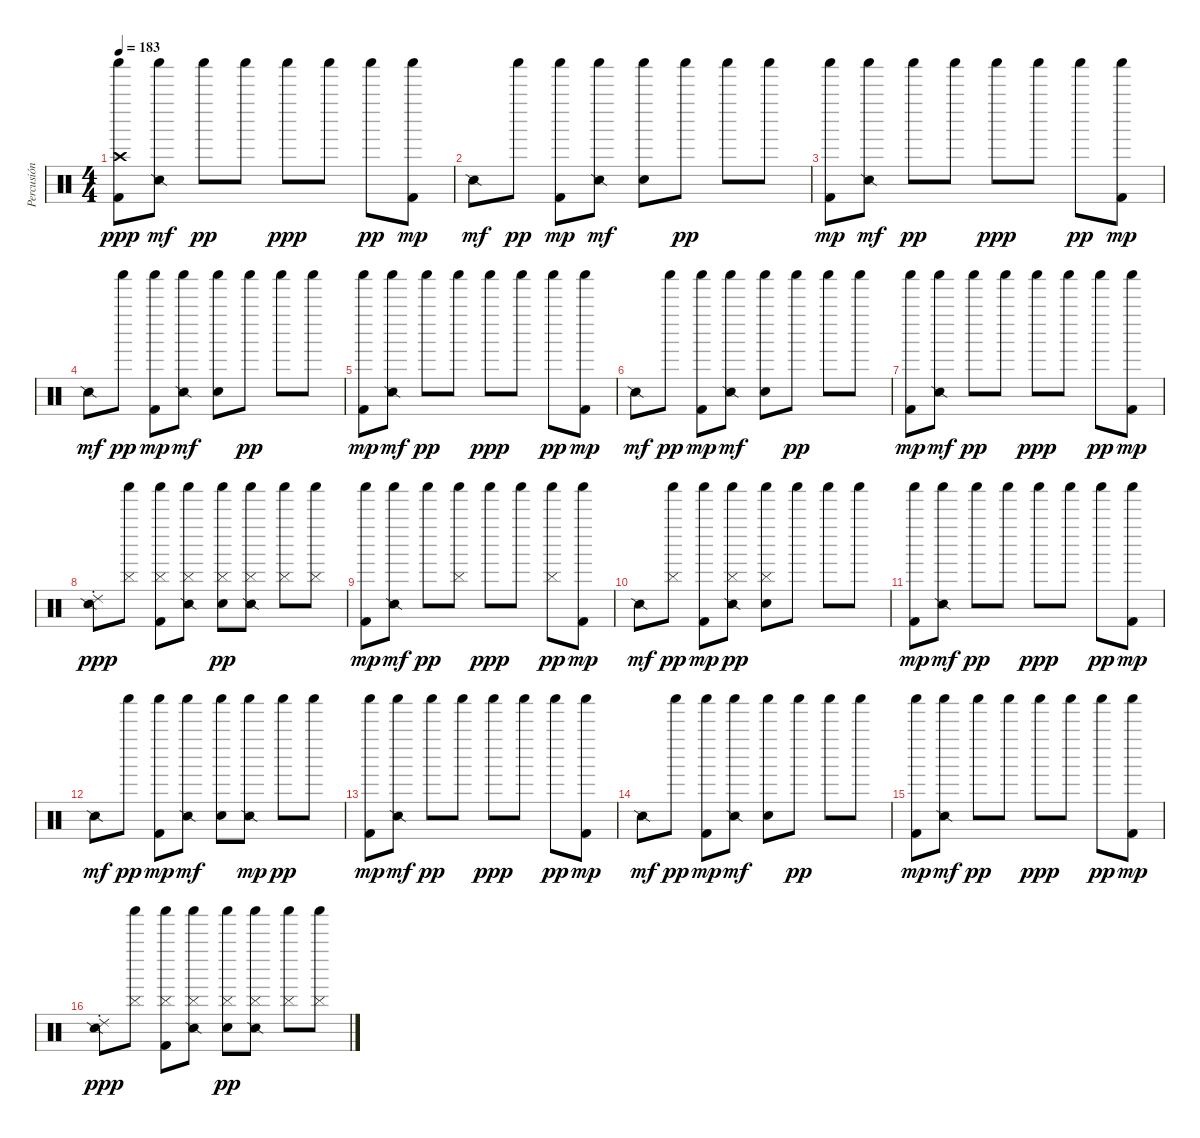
\track ("Percusión" "Percusión") {instrument percussion}
\staff {score}
\articulation defaults
\ts (4 4)
\tempo 183
\clef neutral
\ks c
("Crash high (hit)" "Shaker (hit)" "Kick (hit) 2").8{dy ppp} ("Shaker (hit)" "Snare (side stick) 2").8{dy mf} "Shaker (hit)".8{dy pp} "Shaker (hit)".8 "Shaker (hit)".8{dy ppp} "Shaker (hit)".8 "Shaker (hit)".8{dy pp} ("Shaker (hit)" "Kick (hit) 2").8{dy mp} |
"Snare (side stick) 2".8{dy mf} "Shaker (hit)".8{dy pp} ("Shaker (hit)" "Kick (hit) 2").8{dy mp} ("Shaker (hit)" "Snare (side stick) 2").8{dy mf} ("Shaker (hit)" "Electric Snare (hit)").8 "Shaker (hit)".8{dy pp} "Shaker (hit)".8 "Shaker (hit)".8 |
("Shaker (hit)" "Kick (hit) 2").8{dy mp} ("Shaker (hit)" "Snare (side stick) 2").8{dy mf} "Shaker (hit)".8{dy pp} "Shaker (hit)".8 "Shaker (hit)".8{dy ppp} "Shaker (hit)".8 "Shaker (hit)".8{dy pp} ("Shaker (hit)" "Kick (hit) 2").8{dy mp} |
"Snare (side stick) 2".8{dy mf} "Shaker (hit)".8{dy pp} ("Shaker (hit)" "Kick (hit) 2").8{dy mp} ("Shaker (hit)" "Snare (side stick) 2").8{dy mf} ("Shaker (hit)" "Electric Snare (hit)").8 "Shaker (hit)".8{dy pp} "Shaker (hit)".8 "Shaker (hit)".8 |
("Shaker (hit)" "Kick (hit) 2").8{dy mp} ("Shaker (hit)" "Snare (side stick) 2").8{dy mf} "Shaker (hit)".8{dy pp} "Shaker (hit)".8 "Shaker (hit)".8{dy ppp} "Shaker (hit)".8 "Shaker (hit)".8{dy pp} ("Shaker (hit)" "Kick (hit) 2").8{dy mp} |
"Snare (side stick) 2".8{dy mf} "Shaker (hit)".8{dy pp} ("Shaker (hit)" "Kick (hit) 2").8{dy mp} ("Shaker (hit)" "Snare (side stick) 2").8{dy mf} ("Shaker (hit)" "Electric Snare (hit)").8 "Shaker (hit)".8{dy pp} "Shaker (hit)".8 "Shaker (hit)".8 |
("Shaker (hit)" "Kick (hit) 2").8{dy mp} ("Shaker (hit)" "Snare (side stick) 2").8{dy mf} "Shaker (hit)".8{dy pp} "Shaker (hit)".8 "Shaker (hit)".8{dy ppp} "Shaker (hit)".8 "Shaker (hit)".8{dy pp} ("Shaker (hit)" "Kick (hit) 2").8{dy mp} |
("Snare (side stick) 2" "Ride (choke) 2").8{dy ppp} ("Shaker (hit)" "Cymbal (hit)").8 ("Shaker (hit)" "Kick (hit) 2" "Cymbal (hit)").8 ("Shaker (hit)" "Snare (side stick) 2" "Cymbal (hit)").8 ("Shaker (hit)" "Electric Snare (hit)" "Cymbal (hit)").8{dy pp} ("Shaker (hit)" "Snare (side stick) 2" "Cymbal (hit)").8 ("Shaker (hit)" "Cymbal (hit)").8 ("Shaker (hit)" "Cymbal (hit)").8 |
("Shaker (hit)" "Kick (hit) 2").8{dy mp} ("Shaker (hit)" "Snare (side stick) 2").8{dy mf} "Shaker (hit)".8{dy pp} ("Shaker (hit)" "Cymbal (hit)").8 "Shaker (hit)".8{dy ppp} "Shaker (hit)".8 ("Shaker (hit)" "Cymbal (hit)").8{dy pp} ("Shaker (hit)" "Kick (hit) 2").8{dy mp} |
"Snare (side stick) 2".8{dy mf} ("Shaker (hit)" "Cymbal (hit)").8{dy pp} ("Shaker (hit)" "Kick (hit) 2").8{dy mp} ("Shaker (hit)" "Snare (side stick) 2" "Cymbal (hit)").8{dy pp} ("Shaker (hit)" "Electric Snare (hit)" "Cymbal (hit)").8 "Shaker (hit)".8 "Shaker (hit)".8 "Shaker (hit)".8 |
("Shaker (hit)" "Kick (hit) 2").8{dy mp} ("Shaker (hit)" "Snare (side stick) 2").8{dy mf} "Shaker (hit)".8{dy pp} "Shaker (hit)".8 "Shaker (hit)".8{dy ppp} "Shaker (hit)".8 "Shaker (hit)".8{dy pp} ("Shaker (hit)" "Kick (hit) 2").8{dy mp} |
"Snare (side stick) 2".8{dy mf} "Shaker (hit)".8{dy pp} ("Shaker (hit)" "Kick (hit) 2").8{dy mp} ("Shaker (hit)" "Snare (side stick) 2").8{dy mf} ("Shaker (hit)" "Electric Snare (hit)").8 ("Shaker (hit)" "Snare (side stick) 2").8{dy mp} "Shaker (hit)".8{dy pp} "Shaker (hit)".8 |
("Shaker (hit)" "Kick (hit) 2").8{dy mp} ("Shaker (hit)" "Snare (side stick) 2").8{dy mf} "Shaker (hit)".8{dy pp} "Shaker (hit)".8 "Shaker (hit)".8{dy ppp} "Shaker (hit)".8 "Shaker (hit)".8{dy pp} ("Shaker (hit)" "Kick (hit) 2").8{dy mp} |
"Snare (side stick) 2".8{dy mf} "Shaker (hit)".8{dy pp} ("Shaker (hit)" "Kick (hit) 2").8{dy mp} ("Shaker (hit)" "Snare (side stick) 2").8{dy mf} ("Shaker (hit)" "Electric Snare (hit)").8 "Shaker (hit)".8{dy pp} "Shaker (hit)".8 "Shaker (hit)".8 |
("Shaker (hit)" "Kick (hit) 2").8{dy mp} ("Shaker (hit)" "Snare (side stick) 2").8{dy mf} "Shaker (hit)".8{dy pp} "Shaker (hit)".8 "Shaker (hit)".8{dy ppp} "Shaker (hit)".8 "Shaker (hit)".8{dy pp} ("Shaker (hit)" "Kick (hit) 2").8{dy mp} |
("Snare (side stick) 2" "Ride (choke) 2").8{dy ppp} ("Shaker (hit)" "Cymbal (hit)").8 ("Shaker (hit)" "Kick (hit) 2" "Cymbal (hit)").8 ("Shaker (hit)" "Snare (side stick) 2" "Cymbal (hit)").8 ("Shaker (hit)" "Electric Snare (hit)" "Cymbal (hit)").8{dy pp} ("Shaker (hit)" "Snare (side stick) 2" "Cymbal (hit)").8 ("Shaker (hit)" "Cymbal (hit)").8 ("Shaker (hit)" "Cymbal (hit)").8
